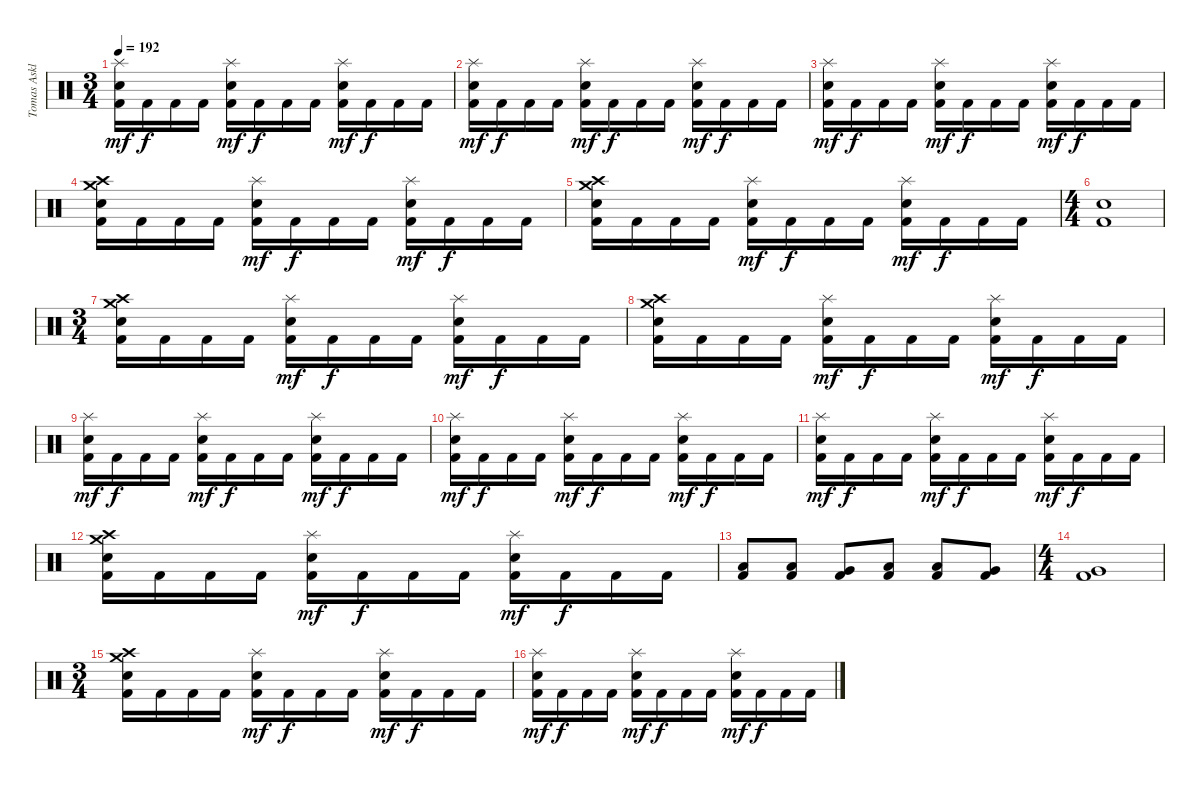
\track ("Tomas Asklund" "Tomas Askl") {instrument percussion}
\staff {score}
\articulation defaults
\ts (3 4)
\tempo 192
\clef neutral
\ks c
("Splash (hit)" "Snare (hit) 2" "Kick (hit) 2").16{dy mf} "Kick (hit) 2".16{dy f} "Kick (hit) 2".16 "Kick (hit) 2".16 ("Splash (hit)" "Snare (hit) 2" "Kick (hit) 2").16{dy mf} "Kick (hit) 2".16{dy f} "Kick (hit) 2".16 "Kick (hit) 2".16 ("Splash (hit)" "Snare (hit) 2" "Kick (hit) 2").16{dy mf} "Kick (hit) 2".16{dy f} "Kick (hit) 2".16 "Kick (hit) 2".16 |
("Splash (hit)" "Snare (hit) 2" "Kick (hit) 2").16{dy mf} "Kick (hit) 2".16{dy f} "Kick (hit) 2".16 "Kick (hit) 2".16 ("Splash (hit)" "Snare (hit) 2" "Kick (hit) 2").16{dy mf} "Kick (hit) 2".16{dy f} "Kick (hit) 2".16 "Kick (hit) 2".16 ("Splash (hit)" "Snare (hit) 2" "Kick (hit) 2").16{dy mf} "Kick (hit) 2".16{dy f} "Kick (hit) 2".16 "Kick (hit) 2".16 |
("Splash (hit)" "Snare (hit) 2" "Kick (hit) 2").16{dy mf} "Kick (hit) 2".16{dy f} "Kick (hit) 2".16 "Kick (hit) 2".16 ("Splash (hit)" "Snare (hit) 2" "Kick (hit) 2").16{dy mf} "Kick (hit) 2".16{dy f} "Kick (hit) 2".16 "Kick (hit) 2".16 ("Splash (hit)" "Snare (hit) 2" "Kick (hit) 2").16{dy mf} "Kick (hit) 2".16{dy f} "Kick (hit) 2".16 "Kick (hit) 2".16 |
("Crash high (hit)" "Crash medium (hit)" "Snare (hit) 2" "Kick (hit) 2").16 "Kick (hit) 2".16 "Kick (hit) 2".16 "Kick (hit) 2".16 ("Splash (hit)" "Snare (hit) 2" "Kick (hit) 2").16{dy mf} "Kick (hit) 2".16{dy f} "Kick (hit) 2".16 "Kick (hit) 2".16 ("Splash (hit)" "Snare (hit) 2" "Kick (hit) 2").16{dy mf} "Kick (hit) 2".16{dy f} "Kick (hit) 2".16 "Kick (hit) 2".16 |
("Crash high (hit)" "Crash medium (hit)" "Snare (hit) 2" "Kick (hit) 2").16 "Kick (hit) 2".16 "Kick (hit) 2".16 "Kick (hit) 2".16 ("Splash (hit)" "Snare (hit) 2" "Kick (hit) 2").16{dy mf} "Kick (hit) 2".16{dy f} "Kick (hit) 2".16 "Kick (hit) 2".16 ("Splash (hit)" "Snare (hit) 2" "Kick (hit) 2").16{dy mf} "Kick (hit) 2".16{dy f} "Kick (hit) 2".16 "Kick (hit) 2".16 |
\ts (4 4)
("Snare (hit) 2" "Kick (hit) 2").1 |
\ts (3 4)
("Crash high (hit)" "Crash medium (hit)" "Snare (hit) 2" "Kick (hit) 2").16 "Kick (hit) 2".16 "Kick (hit) 2".16 "Kick (hit) 2".16 ("Splash (hit)" "Snare (hit) 2" "Kick (hit) 2").16{dy mf} "Kick (hit) 2".16{dy f} "Kick (hit) 2".16 "Kick (hit) 2".16 ("Splash (hit)" "Snare (hit) 2" "Kick (hit) 2").16{dy mf} "Kick (hit) 2".16{dy f} "Kick (hit) 2".16 "Kick (hit) 2".16 |
("Crash high (hit)" "Crash medium (hit)" "Snare (hit) 2" "Kick (hit) 2").16 "Kick (hit) 2".16 "Kick (hit) 2".16 "Kick (hit) 2".16 ("Splash (hit)" "Snare (hit) 2" "Kick (hit) 2").16{dy mf} "Kick (hit) 2".16{dy f} "Kick (hit) 2".16 "Kick (hit) 2".16 ("Splash (hit)" "Snare (hit) 2" "Kick (hit) 2").16{dy mf} "Kick (hit) 2".16{dy f} "Kick (hit) 2".16 "Kick (hit) 2".16 |
("Splash (hit)" "Snare (hit) 2" "Kick (hit) 2").16{dy mf} "Kick (hit) 2".16{dy f} "Kick (hit) 2".16 "Kick (hit) 2".16 ("Splash (hit)" "Snare (hit) 2" "Kick (hit) 2").16{dy mf} "Kick (hit) 2".16{dy f} "Kick (hit) 2".16 "Kick (hit) 2".16 ("Splash (hit)" "Snare (hit) 2" "Kick (hit) 2").16{dy mf} "Kick (hit) 2".16{dy f} "Kick (hit) 2".16 "Kick (hit) 2".16 |
("Splash (hit)" "Snare (hit) 2" "Kick (hit) 2").16{dy mf} "Kick (hit) 2".16{dy f} "Kick (hit) 2".16 "Kick (hit) 2".16 ("Splash (hit)" "Snare (hit) 2" "Kick (hit) 2").16{dy mf} "Kick (hit) 2".16{dy f} "Kick (hit) 2".16 "Kick (hit) 2".16 ("Splash (hit)" "Snare (hit) 2" "Kick (hit) 2").16{dy mf} "Kick (hit) 2".16{dy f} "Kick (hit) 2".16 "Kick (hit) 2".16 |
("Splash (hit)" "Snare (hit) 2" "Kick (hit) 2").16{dy mf} "Kick (hit) 2".16{dy f} "Kick (hit) 2".16 "Kick (hit) 2".16 ("Splash (hit)" "Snare (hit) 2" "Kick (hit) 2").16{dy mf} "Kick (hit) 2".16{dy f} "Kick (hit) 2".16 "Kick (hit) 2".16 ("Splash (hit)" "Snare (hit) 2" "Kick (hit) 2").16{dy mf} "Kick (hit) 2".16{dy f} "Kick (hit) 2".16 "Kick (hit) 2".16 |
("Crash high (hit)" "Crash medium (hit)" "Snare (hit) 2" "Kick (hit) 2").16 "Kick (hit) 2".16 "Kick (hit) 2".16 "Kick (hit) 2".16 ("Splash (hit)" "Snare (hit) 2" "Kick (hit) 2").16{dy mf} "Kick (hit) 2".16{dy f} "Kick (hit) 2".16 "Kick (hit) 2".16 ("Splash (hit)" "Snare (hit) 2" "Kick (hit) 2").16{dy mf} "Kick (hit) 2".16{dy f} "Kick (hit) 2".16 "Kick (hit) 2".16 |
("Low Tom (hit)" "Kick (hit) 2").8 ("Low Tom (hit)" "Kick (hit) 2").8 ("Very Low Tom (hit)" "Kick (hit) 2").8 ("Low Tom (hit)" "Kick (hit) 2").8 ("Low Tom (hit)" "Kick (hit) 2").8 ("Very Low Tom (hit)" "Kick (hit) 2").8 |
\ts (4 4)
("Very Low Tom (hit)" "Kick (hit) 2").1 |
\ts (3 4)
("Crash high (hit)" "Crash medium (hit)" "Snare (hit) 2" "Kick (hit) 2").16 "Kick (hit) 2".16 "Kick (hit) 2".16 "Kick (hit) 2".16 ("Splash (hit)" "Snare (hit) 2" "Kick (hit) 2").16{dy mf} "Kick (hit) 2".16{dy f} "Kick (hit) 2".16 "Kick (hit) 2".16 ("Splash (hit)" "Snare (hit) 2" "Kick (hit) 2").16{dy mf} "Kick (hit) 2".16{dy f} "Kick (hit) 2".16 "Kick (hit) 2".16 |
("Splash (hit)" "Snare (hit) 2" "Kick (hit) 2").16{dy mf} "Kick (hit) 2".16{dy f} "Kick (hit) 2".16 "Kick (hit) 2".16 ("Splash (hit)" "Snare (hit) 2" "Kick (hit) 2").16{dy mf} "Kick (hit) 2".16{dy f} "Kick (hit) 2".16 "Kick (hit) 2".16 ("Splash (hit)" "Snare (hit) 2" "Kick (hit) 2").16{dy mf} "Kick (hit) 2".16{dy f} "Kick (hit) 2".16 "Kick (hit) 2".16
